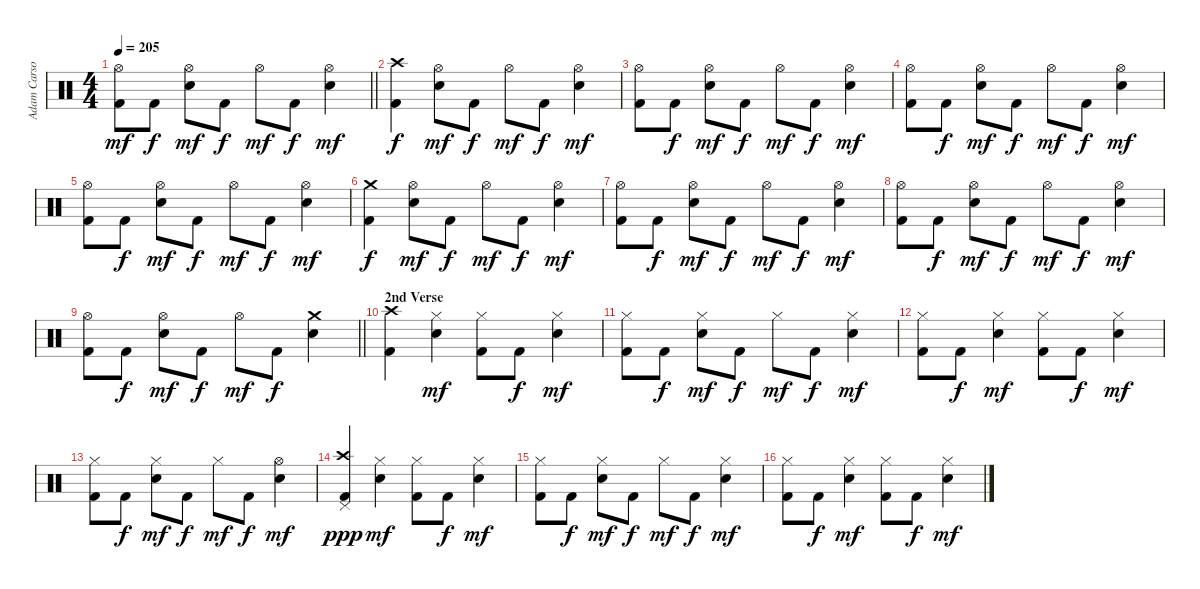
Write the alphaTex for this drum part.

\track ("Adam Carson" "Adam Carso") {instrument percussion}
\staff {score}
\articulation defaults
\ts (4 4)
\tempo 205
\clef neutral
\barLineRight lightlight
\ks aminor
("Hi-Hat (open)" "Kick (hit) 2").8{dy mf} "Kick (hit) 2".8{dy f} ("Hi-Hat (open)" "Snare (hit) 2").8{dy mf} "Kick (hit) 2".8{dy f} "Hi-Hat (open)".8{dy mf} "Kick (hit) 2".8{dy f} ("Hi-Hat (open)" "Snare (hit) 2").4{dy mf} |
("Crash high (hit)" "Kick (hit) 2").4{dy f} ("Hi-Hat (open)" "Snare (hit) 2").8{dy mf} "Kick (hit) 2".8{dy f} "Hi-Hat (open)".8{dy mf} "Kick (hit) 2".8{dy f} ("Hi-Hat (open)" "Snare (hit) 2").4{dy mf} |
("Hi-Hat (open)" "Kick (hit) 2").8 "Kick (hit) 2".8{dy f} ("Hi-Hat (open)" "Snare (hit) 2").8{dy mf} "Kick (hit) 2".8{dy f} "Hi-Hat (open)".8{dy mf} "Kick (hit) 2".8{dy f} ("Hi-Hat (open)" "Snare (hit) 2").4{dy mf} |
("Hi-Hat (open)" "Kick (hit) 2").8 "Kick (hit) 2".8{dy f} ("Hi-Hat (open)" "Snare (hit) 2").8{dy mf} "Kick (hit) 2".8{dy f} "Hi-Hat (open)".8{dy mf} "Kick (hit) 2".8{dy f} ("Hi-Hat (open)" "Snare (hit) 2").4{dy mf} |
("Hi-Hat (open)" "Kick (hit) 2").8 "Kick (hit) 2".8{dy f} ("Hi-Hat (open)" "Snare (hit) 2").8{dy mf} "Kick (hit) 2".8{dy f} "Hi-Hat (open)".8{dy mf} "Kick (hit) 2".8{dy f} ("Hi-Hat (open)" "Snare (hit) 2").4{dy mf} |
("Crash medium (hit)" "Kick (hit) 2").4{dy f} ("Hi-Hat (open)" "Snare (hit) 2").8{dy mf} "Kick (hit) 2".8{dy f} "Hi-Hat (open)".8{dy mf} "Kick (hit) 2".8{dy f} ("Hi-Hat (open)" "Snare (hit) 2").4{dy mf} |
("Hi-Hat (open)" "Kick (hit) 2").8 "Kick (hit) 2".8{dy f} ("Hi-Hat (open)" "Snare (hit) 2").8{dy mf} "Kick (hit) 2".8{dy f} "Hi-Hat (open)".8{dy mf} "Kick (hit) 2".8{dy f} ("Hi-Hat (open)" "Snare (hit) 2").4{dy mf} |
("Hi-Hat (open)" "Kick (hit) 2").8 "Kick (hit) 2".8{dy f} ("Hi-Hat (open)" "Snare (hit) 2").8{dy mf} "Kick (hit) 2".8{dy f} "Hi-Hat (open)".8{dy mf} "Kick (hit) 2".8{dy f} ("Hi-Hat (open)" "Snare (hit) 2").4{dy mf} |
\barLineRight lightlight
("Hi-Hat (open)" "Kick (hit) 2").8 "Kick (hit) 2".8{dy f} ("Hi-Hat (open)" "Snare (hit) 2").8{dy mf} "Kick (hit) 2".8{dy f} "Hi-Hat (open)".8{dy mf} "Kick (hit) 2".8{dy f} ("Crash medium (hit)" "Snare (hit) 2").4 |
\section ("" "2nd Verse")
("Crash high (hit)" "Kick (hit) 2").4 ("Hi-Hat (closed)" "Snare (hit) 2").4{dy mf} ("Hi-Hat (closed)" "Kick (hit) 2").8 "Kick (hit) 2".8{dy f} ("Hi-Hat (closed)" "Snare (hit) 2").4{dy mf} |
("Hi-Hat (closed)" "Kick (hit) 2").8 "Kick (hit) 2".8{dy f} ("Hi-Hat (closed)" "Snare (hit) 2").8{dy mf} "Kick (hit) 2".8{dy f} "Hi-Hat (closed)".8{dy mf} "Kick (hit) 2".8{dy f} ("Hi-Hat (closed)" "Snare (hit) 2").4{dy mf} |
("Hi-Hat (closed)" "Kick (hit) 2").8 "Kick (hit) 2".8{dy f} ("Hi-Hat (closed)" "Snare (hit) 2").4{dy mf} ("Hi-Hat (closed)" "Kick (hit) 2").8 "Kick (hit) 2".8{dy f} ("Hi-Hat (closed)" "Snare (hit) 2").4{dy mf} |
("Hi-Hat (closed)" "Kick (hit) 2").8 "Kick (hit) 2".8{dy f} ("Hi-Hat (closed)" "Snare (hit) 2").8{dy mf} "Kick (hit) 2".8{dy f} "Hi-Hat (closed)".8{dy mf} "Kick (hit) 2".8{dy f} ("Hi-Hat (open)" "Snare (hit) 2").4{dy mf} |
("Crash high (hit)" "Pedal Hi-Hat (hit)" "Kick (hit) 2").4{dy ppp} ("Hi-Hat (closed)" "Snare (hit) 2").4{dy mf} ("Hi-Hat (closed)" "Kick (hit) 2").8 "Kick (hit) 2".8{dy f} ("Hi-Hat (closed)" "Snare (hit) 2").4{dy mf} |
("Hi-Hat (closed)" "Kick (hit) 2").8 "Kick (hit) 2".8{dy f} ("Hi-Hat (closed)" "Snare (hit) 2").8{dy mf} "Kick (hit) 2".8{dy f} "Hi-Hat (closed)".8{dy mf} "Kick (hit) 2".8{dy f} ("Hi-Hat (closed)" "Snare (hit) 2").4{dy mf} |
("Hi-Hat (closed)" "Kick (hit) 2").8 "Kick (hit) 2".8{dy f} ("Hi-Hat (closed)" "Snare (hit) 2").4{dy mf} ("Hi-Hat (closed)" "Kick (hit) 2").8 "Kick (hit) 2".8{dy f} ("Hi-Hat (closed)" "Snare (hit) 2").4{dy mf}
